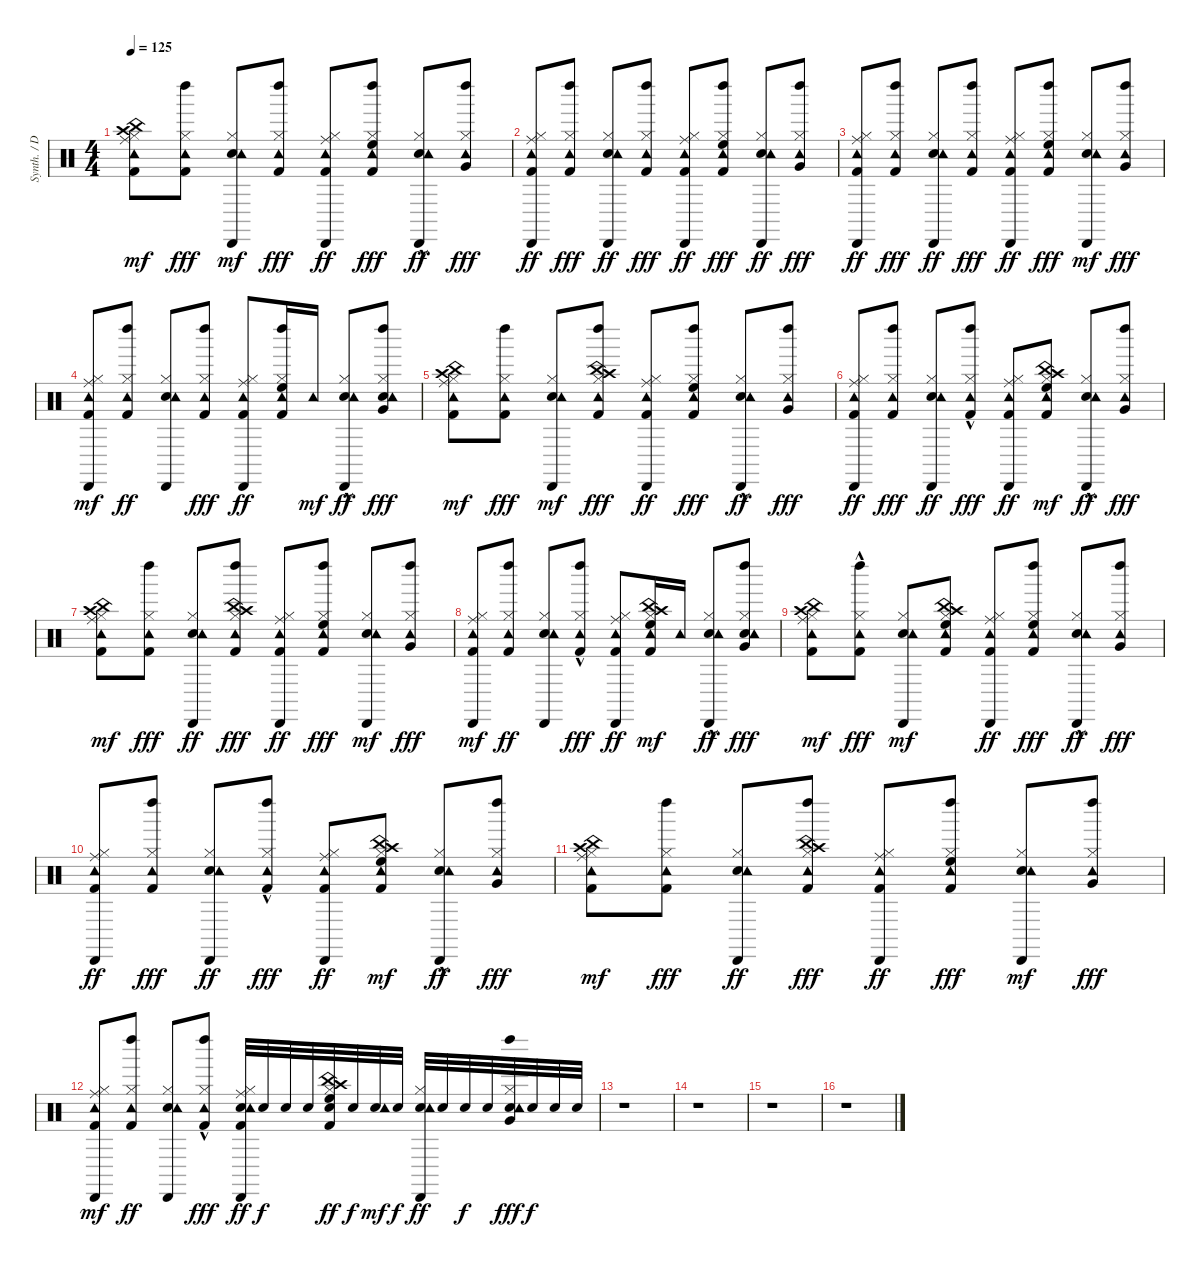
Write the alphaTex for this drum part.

\track ("Synth. / Drums" "Synth. / D") {instrument percussion}
\staff {score}
\articulation defaults
\ts (4 4)
\tempo 125
\clef neutral
\ks c
("Kick (hit) 2" "Hi-Hat (closed)" "Crash high (hit)" "Ride (middle)" "China (hit)" "Tambourine (hit)").8{dy mf} ("Kick (hit) 2" "Hi-Hat (closed)" "Tambourine (hit)" "Left Maraca (hit)").8{dy fff} ("Electric Snare (hit)" "Hi-Hat (closed)" "Tambourine (hit)" "Cabasa (hit)").8{dy mf} ("Kick (hit) 2" "Hi-Hat (closed)" "Tambourine (hit)" "Left Maraca (hit)").8{dy fff} ("Kick (hit) 2" "Hi-Hat (closed)" "Ride (middle)" "Tambourine (hit)" "Cabasa (hit)").8{dy ff} ("Kick (hit) 2" "Hi-Hat (closed)" "High Floor Tom (hit)" "Tambourine (hit)" "Left Maraca (hit)").8{dy fff} ("Electric Snare (hit)"{hac} "Hi-Hat (closed)" "Tambourine (hit)" "Cabasa (hit)").8{dy ff} ("Hi-Hat (closed)" "Very Low Tom (hit)" "Tambourine (hit)" "Left Maraca (hit)").8{dy fff} |
("Kick (hit) 2" "Hi-Hat (closed)" "Ride (middle)" "Tambourine (hit)" "Cabasa (hit)").8{dy ff} ("Kick (hit) 2" "Hi-Hat (closed)" "Tambourine (hit)" "Left Maraca (hit)").8{dy fff} ("Electric Snare (hit)" "Hi-Hat (closed)" "Tambourine (hit)" "Cabasa (hit)").8{dy ff} ("Kick (hit) 2" "Hi-Hat (closed)" "Tambourine (hit)" "Left Maraca (hit)").8{dy fff} ("Kick (hit) 2" "Hi-Hat (closed)" "Ride (middle)" "Tambourine (hit)" "Cabasa (hit)").8{dy ff} ("Kick (hit) 2" "Hi-Hat (closed)" "High Floor Tom (hit)" "Tambourine (hit)" "Left Maraca (hit)").8{dy fff} ("Electric Snare (hit)" "Hi-Hat (closed)" "Tambourine (hit)" "Cabasa (hit)").8{dy ff} ("Hi-Hat (closed)" "Very Low Tom (hit)" "Tambourine (hit)" "Left Maraca (hit)").8{dy fff} |
("Kick (hit) 2" "Hi-Hat (closed)" "Ride (middle)" "Tambourine (hit)" "Cabasa (hit)").8{dy ff} ("Kick (hit) 2" "Hi-Hat (closed)" "Tambourine (hit)" "Left Maraca (hit)").8{dy fff} ("Electric Snare (hit)" "Hi-Hat (closed)" "Tambourine (hit)" "Cabasa (hit)").8{dy ff} ("Kick (hit) 2" "Hi-Hat (closed)" "Tambourine (hit)" "Left Maraca (hit)").8{dy fff} ("Kick (hit) 2" "Hi-Hat (closed)" "Ride (middle)" "Tambourine (hit)" "Cabasa (hit)").8{dy ff} ("Kick (hit) 2" "Hi-Hat (closed)" "High Floor Tom (hit)" "Tambourine (hit)" "Left Maraca (hit)").8{dy fff} ("Electric Snare (hit)" "Hi-Hat (closed)" "Tambourine (hit)" "Cabasa (hit)").8{dy mf} ("Hi-Hat (closed)" "Very Low Tom (hit)" "Tambourine (hit)" "Left Maraca (hit)").8{dy fff} |
("Kick (hit) 2" "Hi-Hat (closed)" "Ride (middle)" "Tambourine (hit)" "Cabasa (hit)").8{dy mf} ("Kick (hit) 2" "Hi-Hat (closed)" "Tambourine (hit)" "Left Maraca (hit)").8{dy ff} ("Electric Snare (hit)" "Hi-Hat (closed)" "Tambourine (hit)" "Cabasa (hit)").8 ("Kick (hit) 2" "Hi-Hat (closed)" "Tambourine (hit)" "Left Maraca (hit)").8{dy fff} ("Kick (hit) 2" "Hi-Hat (closed)" "Ride (middle)" "Tambourine (hit)" "Cabasa (hit)").8{dy ff} ("Kick (hit) 2" "Hi-Hat (closed)" "High Floor Tom (hit)" "Tambourine (hit)" "Left Maraca (hit)").16 "Tambourine (hit)".16{dy mf} ("Electric Snare (hit)" "Hi-Hat (closed)" "Tambourine (hit)" "Cabasa (hit)"{hac}).8{dy ff} ("Electric Snare (hit)" "Hi-Hat (closed)" "Very Low Tom (hit)" "Tambourine (hit)" "Left Maraca (hit)").8{dy fff} |
("Kick (hit) 2" "Hi-Hat (closed)" "Crash high (hit)" "Ride (middle)" "China (hit)" "Tambourine (hit)").8{dy mf} ("Kick (hit) 2" "Hi-Hat (closed)" "Tambourine (hit)" "Left Maraca (hit)").8{dy fff} ("Electric Snare (hit)" "Hi-Hat (closed)" "Tambourine (hit)" "Cabasa (hit)").8{dy mf} ("Kick (hit) 2" "Hi-Hat (closed)" "Crash high (hit)" "China (hit)" "Tambourine (hit)" "Left Maraca (hit)").8{dy fff} ("Kick (hit) 2" "Hi-Hat (closed)" "Ride (middle)" "Tambourine (hit)" "Cabasa (hit)").8{dy ff} ("Kick (hit) 2" "Hi-Hat (closed)" "High Floor Tom (hit)" "Tambourine (hit)" "Left Maraca (hit)").8{dy fff} ("Electric Snare (hit)"{hac} "Hi-Hat (closed)" "Tambourine (hit)" "Cabasa (hit)").8{dy ff} ("Hi-Hat (closed)" "Very Low Tom (hit)" "Tambourine (hit)" "Left Maraca (hit)").8{dy fff} |
("Kick (hit) 2" "Hi-Hat (closed)" "Ride (middle)" "Tambourine (hit)" "Cabasa (hit)").8{dy ff} ("Kick (hit) 2" "Hi-Hat (closed)" "Tambourine (hit)" "Left Maraca (hit)").8{dy fff} ("Electric Snare (hit)" "Hi-Hat (closed)" "Tambourine (hit)" "Cabasa (hit)").8{dy ff} ("Kick (hit) 2" "Hi-Hat (closed)" "Tambourine (hit)" "Left Maraca (hit)"{hac}).8{dy fff} ("Kick (hit) 2" "Hi-Hat (closed)" "Ride (middle)" "Tambourine (hit)" "Cabasa (hit)").8{dy ff} ("Kick (hit) 2" "Hi-Hat (closed)" "High Floor Tom (hit)" "Crash high (hit)" "China (hit)" "Tambourine (hit)").8{dy mf} ("Electric Snare (hit)" "Hi-Hat (closed)" "Tambourine (hit)" "Cabasa (hit)"{hac}).8{dy ff} ("Hi-Hat (closed)" "Very Low Tom (hit)" "Tambourine (hit)" "Left Maraca (hit)").8{dy fff} |
("Kick (hit) 2" "Hi-Hat (closed)" "Crash high (hit)" "Ride (middle)" "China (hit)" "Tambourine (hit)").8{dy mf} ("Kick (hit) 2" "Hi-Hat (closed)" "Tambourine (hit)" "Left Maraca (hit)").8{dy fff} ("Electric Snare (hit)" "Hi-Hat (closed)" "Tambourine (hit)" "Cabasa (hit)").8{dy ff} ("Kick (hit) 2" "Hi-Hat (closed)" "Crash high (hit)" "China (hit)" "Tambourine (hit)" "Left Maraca (hit)").8{dy fff} ("Kick (hit) 2" "Hi-Hat (closed)" "Ride (middle)" "Tambourine (hit)" "Cabasa (hit)").8{dy ff} ("Kick (hit) 2" "Hi-Hat (closed)" "High Floor Tom (hit)" "Tambourine (hit)" "Left Maraca (hit)").8{dy fff} ("Electric Snare (hit)" "Hi-Hat (closed)" "Tambourine (hit)" "Cabasa (hit)").8{dy mf} ("Hi-Hat (closed)" "Very Low Tom (hit)" "Tambourine (hit)" "Left Maraca (hit)").8{dy fff} |
("Kick (hit) 2" "Hi-Hat (closed)" "Ride (middle)" "Tambourine (hit)" "Cabasa (hit)").8{dy mf} ("Kick (hit) 2" "Hi-Hat (closed)" "Tambourine (hit)" "Left Maraca (hit)").8{dy ff} ("Electric Snare (hit)" "Hi-Hat (closed)" "Tambourine (hit)" "Cabasa (hit)").8 ("Kick (hit) 2" "Hi-Hat (closed)" "Tambourine (hit)" "Left Maraca (hit)"{hac}).8{dy fff} ("Kick (hit) 2" "Hi-Hat (closed)" "Ride (middle)" "Tambourine (hit)" "Cabasa (hit)").8{dy ff} ("Kick (hit) 2" "Hi-Hat (closed)" "High Floor Tom (hit)" "Crash high (hit)" "China (hit)" "Tambourine (hit)").16{dy mf} "Tambourine (hit)".16 ("Electric Snare (hit)" "Hi-Hat (closed)" "Tambourine (hit)" "Cabasa (hit)"{hac}).8{dy ff} ("Electric Snare (hit)" "Hi-Hat (closed)" "Very Low Tom (hit)" "Tambourine (hit)" "Left Maraca (hit)").8{dy fff} |
("Kick (hit) 2" "Hi-Hat (closed)" "Crash high (hit)" "Ride (middle)" "China (hit)" "Tambourine (hit)").8{dy mf} ("Kick (hit) 2" "Hi-Hat (closed)" "Tambourine (hit)" "Left Maraca (hit)"{hac}).8{dy fff} ("Electric Snare (hit)" "Hi-Hat (closed)" "Tambourine (hit)" "Cabasa (hit)").8{dy mf} ("Kick (hit) 2" "Hi-Hat (closed)" "Crash high (hit)" "High Floor Tom (hit)" "China (hit)" "Tambourine (hit)").8 ("Kick (hit) 2" "Hi-Hat (closed)" "Ride (middle)" "Tambourine (hit)" "Cabasa (hit)").8{dy ff} ("Kick (hit) 2" "Hi-Hat (closed)" "High Floor Tom (hit)" "Tambourine (hit)" "Left Maraca (hit)").8{dy fff} ("Electric Snare (hit)"{hac} "Hi-Hat (closed)" "Tambourine (hit)" "Cabasa (hit)").8{dy ff} ("Hi-Hat (closed)" "Very Low Tom (hit)" "Tambourine (hit)" "Left Maraca (hit)").8{dy fff} |
("Kick (hit) 2" "Hi-Hat (closed)" "Ride (middle)" "Tambourine (hit)" "Cabasa (hit)").8{dy ff} ("Kick (hit) 2" "Hi-Hat (closed)" "Tambourine (hit)" "Left Maraca (hit)").8{dy fff} ("Electric Snare (hit)" "Hi-Hat (closed)" "Tambourine (hit)" "Cabasa (hit)").8{dy ff} ("Kick (hit) 2" "Hi-Hat (closed)" "Tambourine (hit)" "Left Maraca (hit)"{hac}).8{dy fff} ("Kick (hit) 2" "Hi-Hat (closed)" "Ride (middle)" "Tambourine (hit)" "Cabasa (hit)").8{dy ff} ("Kick (hit) 2" "Hi-Hat (closed)" "High Floor Tom (hit)" "Crash high (hit)" "China (hit)" "Tambourine (hit)").8{dy mf} ("Electric Snare (hit)" "Hi-Hat (closed)" "Tambourine (hit)" "Cabasa (hit)"{hac}).8{dy ff} ("Hi-Hat (closed)" "Very Low Tom (hit)" "Tambourine (hit)" "Left Maraca (hit)").8{dy fff} |
("Kick (hit) 2" "Hi-Hat (closed)" "Crash high (hit)" "Ride (middle)" "China (hit)" "Tambourine (hit)").8{dy mf} ("Kick (hit) 2" "Hi-Hat (closed)" "Tambourine (hit)" "Left Maraca (hit)").8{dy fff} ("Electric Snare (hit)" "Hi-Hat (closed)" "Tambourine (hit)" "Cabasa (hit)").8{dy ff} ("Kick (hit) 2" "Hi-Hat (closed)" "Crash high (hit)" "China (hit)" "Tambourine (hit)" "Left Maraca (hit)").8{dy fff} ("Kick (hit) 2" "Hi-Hat (closed)" "Ride (middle)" "Tambourine (hit)" "Cabasa (hit)").8{dy ff} ("Kick (hit) 2" "Hi-Hat (closed)" "High Floor Tom (hit)" "Tambourine (hit)" "Left Maraca (hit)").8{dy fff} ("Electric Snare (hit)" "Hi-Hat (closed)" "Tambourine (hit)" "Cabasa (hit)").8{dy mf} ("Hi-Hat (closed)" "Very Low Tom (hit)" "Tambourine (hit)" "Left Maraca (hit)").8{dy fff} |
("Kick (hit) 2" "Hi-Hat (closed)" "Ride (middle)" "Tambourine (hit)" "Cabasa (hit)").8{dy mf} ("Kick (hit) 2" "Hi-Hat (closed)" "Tambourine (hit)" "Left Maraca (hit)").8{dy ff} ("Electric Snare (hit)" "Hi-Hat (closed)" "Tambourine (hit)" "Cabasa (hit)").8 ("Kick (hit) 2" "Hi-Hat (closed)" "Tambourine (hit)" "Left Maraca (hit)"{hac}).8{dy fff} ("Kick (hit) 2" "Electric Snare (hit)" "Hi-Hat (closed)" "Ride (middle)" "Tambourine (hit)" "Cabasa (hit)").32{dy ff} "Electric Snare (hit)".32{dy f} "Electric Snare (hit)".32 "Electric Snare (hit)".32 ("Kick (hit) 2" "Electric Snare (hit)" "Hi-Hat (closed)" "High Floor Tom (hit)" "Crash high (hit)" "China (hit)").32{dy ff} "Electric Snare (hit)".32{dy f} ("Electric Snare (hit)" "Tambourine (hit)").32{dy mf} "Electric Snare (hit)".32{dy f} ("Electric Snare (hit)" "Hi-Hat (closed)" "Tambourine (hit)" "Cabasa (hit)").32{dy ff} "Electric Snare (hit)".32 "Electric Snare (hit)".32{dy f} "Electric Snare (hit)".32 ("Electric Snare (hit)" "Hi-Hat (closed)" "Very Low Tom (hit)" "Tambourine (hit)" "Left Maraca (hit)").32{dy fff} "Electric Snare (hit)".32{dy f} "Electric Snare (hit)".32 "Electric Snare (hit)".32 |
r.1 |
r.1 |
r.1 |
r.1
